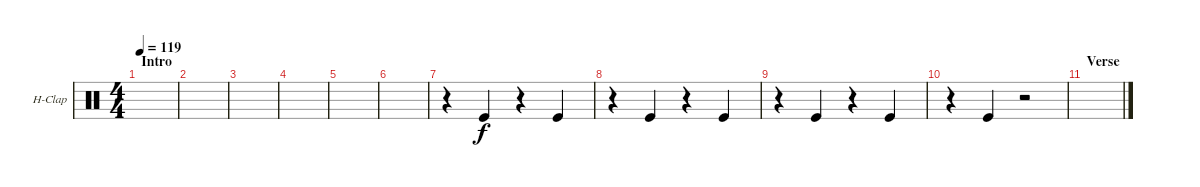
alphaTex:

\defaultSystemsLayout 4
\bracketExtendMode groupsimilarinstruments
\firstSystemTrackNameOrientation horizontal
\otherSystemsTrackNameOrientation horizontal
\track ("Hand Clap" "H-Clap") {instrument percussion}
\staff {score}
\articulation defaults
\ts (4 4)
\section ("" "Intro")
\tempo 119
\clef neutral
\scale
0.474178
\ks c
|
\scale
0.262911 |
\scale
0.262911 |
\scale
0.333333 |
\scale
0.333333 |
\scale
0.333333 |
\scale
0.333333 r.4 "Kick (hit)".4 r.4 "Kick (hit)".4 |
\scale
0.333333 r.4 "Kick (hit)".4 r.4 "Kick (hit)".4 |
\scale
0.333333 r.4 "Kick (hit)".4 r.4 "Kick (hit)".4 |
\scale
0.333333 r.4 "Kick (hit)".4 r.2 |
\section ("" "Verse")
\scale
0.333333 |
\scale
0.333333 |
\scale
0.333333 |
\scale
0.333333 |
\scale
0.333333 |
\scale
0.333333
